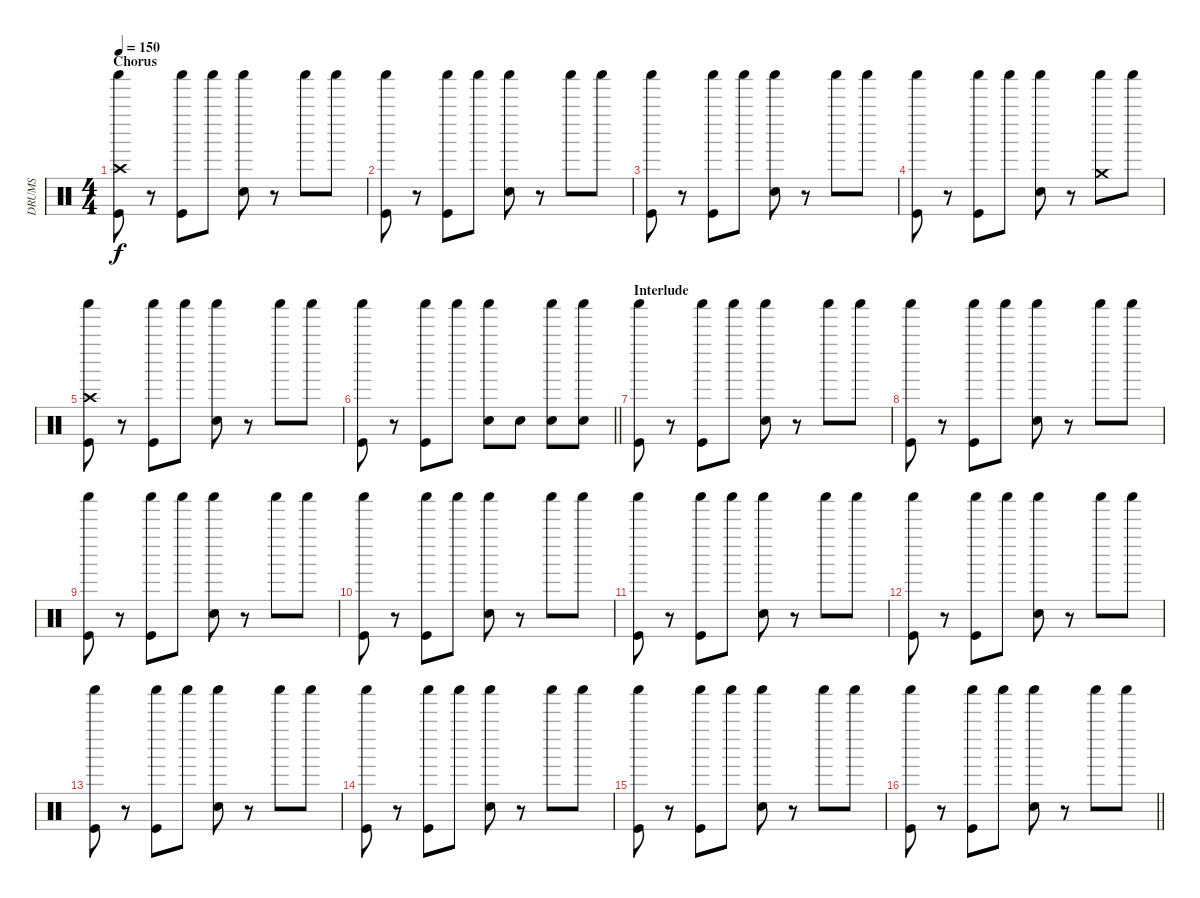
\track ("DRUMS" "DRUMS") {instrument percussion}
\staff {score}
\articulation defaults
\ts (4 4)
\section ("" "Chorus")
\tempo 150
\clef neutral
\ks c
("Shaker (hit)" "Crash high (hit)" "Kick (hit)").8{dy f} r.8 ("Shaker (hit)" "Kick (hit)").8 "Shaker (hit)".8 ("Shaker (hit)" "Snare (hit) 2").8 r.8 "Shaker (hit)".8 "Shaker (hit)".8 |
("Shaker (hit)" "Kick (hit)").8 r.8 ("Shaker (hit)" "Kick (hit)").8 "Shaker (hit)".8 ("Shaker (hit)" "Snare (hit) 2").8 r.8 "Shaker (hit)".8 "Shaker (hit)".8 |
("Shaker (hit)" "Kick (hit)").8 r.8 ("Shaker (hit)" "Kick (hit)").8 "Shaker (hit)".8 ("Shaker (hit)" "Snare (hit) 2").8 r.8 "Shaker (hit)".8 "Shaker (hit)".8 |
("Shaker (hit)" "Kick (hit)").8 r.8 ("Shaker (hit)" "Kick (hit)").8 "Shaker (hit)".8 ("Shaker (hit)" "Snare (hit) 2").8 r.8 ("Shaker (hit)" "Crash medium (hit)").8 "Shaker (hit)".8 |
("Shaker (hit)" "Crash high (hit)" "Kick (hit)").8 r.8 ("Shaker (hit)" "Kick (hit)").8 "Shaker (hit)".8 ("Shaker (hit)" "Snare (hit) 2").8 r.8 "Shaker (hit)".8 "Shaker (hit)".8 |
\barLineRight lightlight
("Shaker (hit)" "Kick (hit)").8 r.8 ("Shaker (hit)" "Kick (hit)").8 "Shaker (hit)".8 ("Shaker (hit)" "Snare (hit) 2").8 "Snare (hit) 2".8 ("Shaker (hit)" "Snare (hit) 2").8 ("Shaker (hit)" "Snare (hit) 2").8 |
\section ("" "Interlude")
("Shaker (hit)" "Kick (hit)").8 r.8 ("Shaker (hit)" "Kick (hit)").8 "Shaker (hit)".8 ("Shaker (hit)" "Snare (hit) 2").8 r.8 "Shaker (hit)".8 "Shaker (hit)".8 |
("Shaker (hit)" "Kick (hit)").8 r.8 ("Shaker (hit)" "Kick (hit)").8 "Shaker (hit)".8 ("Shaker (hit)" "Snare (hit) 2").8 r.8 "Shaker (hit)".8 "Shaker (hit)".8 |
("Shaker (hit)" "Kick (hit)").8 r.8 ("Shaker (hit)" "Kick (hit)").8 "Shaker (hit)".8 ("Shaker (hit)" "Snare (hit) 2").8 r.8 "Shaker (hit)".8 "Shaker (hit)".8 |
("Shaker (hit)" "Kick (hit)").8 r.8 ("Shaker (hit)" "Kick (hit)").8 "Shaker (hit)".8 ("Shaker (hit)" "Snare (hit) 2").8 r.8 "Shaker (hit)".8 "Shaker (hit)".8 |
("Shaker (hit)" "Kick (hit)").8 r.8 ("Shaker (hit)" "Kick (hit)").8 "Shaker (hit)".8 ("Shaker (hit)" "Snare (hit) 2").8 r.8 "Shaker (hit)".8 "Shaker (hit)".8 |
("Shaker (hit)" "Kick (hit)").8 r.8 ("Shaker (hit)" "Kick (hit)").8 "Shaker (hit)".8 ("Shaker (hit)" "Snare (hit) 2").8 r.8 "Shaker (hit)".8 "Shaker (hit)".8 |
("Shaker (hit)" "Kick (hit)").8 r.8 ("Shaker (hit)" "Kick (hit)").8 "Shaker (hit)".8 ("Shaker (hit)" "Snare (hit) 2").8 r.8 "Shaker (hit)".8 "Shaker (hit)".8 |
("Shaker (hit)" "Kick (hit)").8 r.8 ("Shaker (hit)" "Kick (hit)").8 "Shaker (hit)".8 ("Shaker (hit)" "Snare (hit) 2").8 r.8 "Shaker (hit)".8 "Shaker (hit)".8 |
("Shaker (hit)" "Kick (hit)").8 r.8 ("Shaker (hit)" "Kick (hit)").8 "Shaker (hit)".8 ("Shaker (hit)" "Snare (hit) 2").8 r.8 "Shaker (hit)".8 "Shaker (hit)".8 |
\barLineRight lightlight
("Shaker (hit)" "Kick (hit)").8 r.8 ("Shaker (hit)" "Kick (hit)").8 "Shaker (hit)".8 ("Shaker (hit)" "Snare (hit) 2").8 r.8 "Shaker (hit)".8 "Shaker (hit)".8
